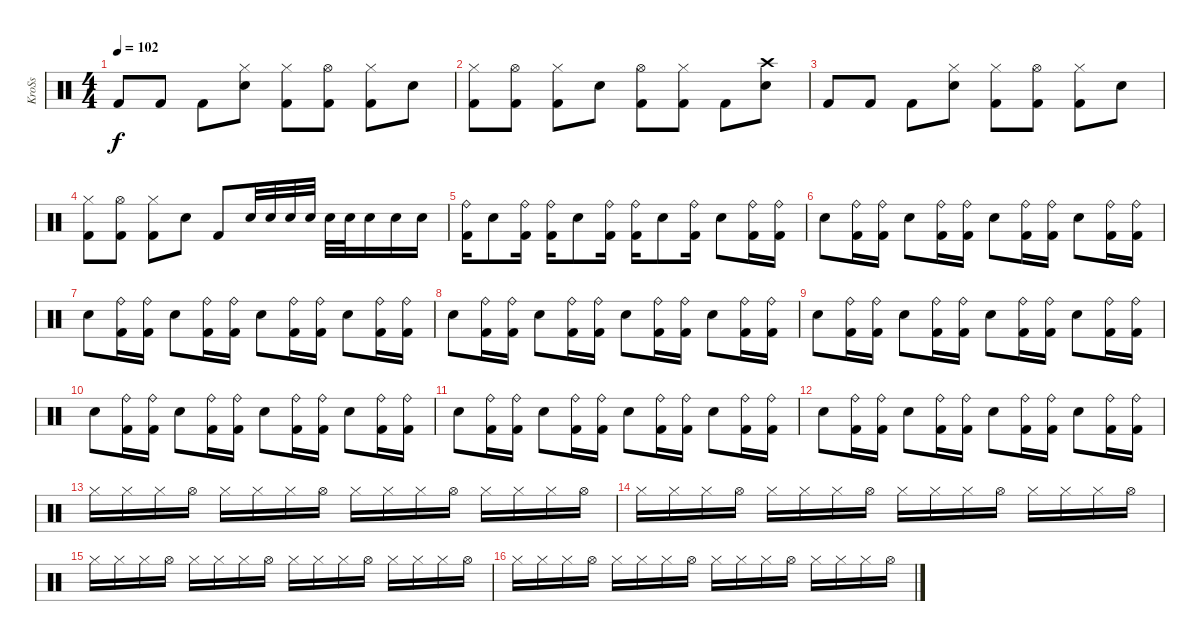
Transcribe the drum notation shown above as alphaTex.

\track ("KroSs" "KroSs") {instrument percussion}
\staff {score}
\articulation defaults
\ts (4 4)
\tempo 102
\clef neutral
\ks c "Kick (hit) 2".8{dy f} "Kick (hit) 2".8 "Kick (hit) 2".8
("Hi-Hat (closed)" "Snare (hit) 2").8 ("Hi-Hat (closed)" "Kick (hit) 2").8 ("Hi-Hat (open)" "Kick (hit) 2").8 ("Hi-Hat (closed)" "Kick (hit) 2").8 "Snare (hit) 2".8 |
("Hi-Hat (closed)" "Kick (hit) 2").8 ("Hi-Hat (open)" "Kick (hit) 2").8 ("Hi-Hat (closed)" "Kick (hit) 2").8 "Snare (hit) 2".8 ("Hi-Hat (open)" "Kick (hit) 2").8 ("Hi-Hat (closed)" "Kick (hit) 2").8 "Kick (hit) 2".8 ("Crash high (hit)" "Snare (hit) 2").8 |
"Kick (hit) 2".8 "Kick (hit) 2".8 "Kick (hit) 2".8 ("Hi-Hat (closed)" "Snare (hit) 2").8 ("Hi-Hat (closed)" "Kick (hit) 2").8 ("Hi-Hat (open)" "Kick (hit) 2").8 ("Hi-Hat (closed)" "Kick (hit) 2").8 "Snare (hit) 2".8 |
("Hi-Hat (closed)" "Kick (hit) 2").8 ("Hi-Hat (open)" "Kick (hit) 2").8 ("Hi-Hat (closed)" "Kick (hit) 2").8 "Snare (hit) 2".8 "Kick (hit) 2".8 "Snare (hit) 2".32 "Snare (hit) 2".32 "Snare (hit) 2".32 "Snare (hit) 2".32 "Snare (hit) 2".32 "Snare (hit) 2".32 "Snare (hit) 2".16 "Snare (hit) 2".16 "Snare (hit) 2".16 |
("Ride (bell)" "Kick (hit) 2").16 "Snare (hit) 2".8 ("Ride (bell)" "Kick (hit) 2").16 ("Ride (bell)" "Kick (hit) 2").16 "Snare (hit) 2".8 ("Ride (bell)" "Kick (hit) 2").16 ("Ride (bell)" "Kick (hit) 2").16 "Snare (hit) 2".8 ("Ride (bell)" "Kick (hit) 2").16 "Snare (hit) 2".8 ("Ride (bell)" "Kick (hit) 2").16 ("Ride (bell)" "Kick (hit) 2").16 |
"Snare (hit) 2".8 ("Ride (bell)" "Kick (hit) 2").16 ("Ride (bell)" "Kick (hit) 2").16 "Snare (hit) 2".8 ("Ride (bell)" "Kick (hit) 2").16 ("Ride (bell)" "Kick (hit) 2").16 "Snare (hit) 2".8 ("Ride (bell)" "Kick (hit) 2").16 ("Ride (bell)" "Kick (hit) 2").16 "Snare (hit) 2".8 ("Ride (bell)" "Kick (hit) 2").16 ("Ride (bell)" "Kick (hit) 2").16 |
"Snare (hit) 2".8 ("Ride (bell)" "Kick (hit) 2").16 ("Ride (bell)" "Kick (hit) 2").16 "Snare (hit) 2".8 ("Ride (bell)" "Kick (hit) 2").16 ("Ride (bell)" "Kick (hit) 2").16 "Snare (hit) 2".8 ("Ride (bell)" "Kick (hit) 2").16 ("Ride (bell)" "Kick (hit) 2").16 "Snare (hit) 2".8 ("Ride (bell)" "Kick (hit) 2").16 ("Ride (bell)" "Kick (hit) 2").16 |
"Snare (hit) 2".8 ("Ride (bell)" "Kick (hit) 2").16 ("Ride (bell)" "Kick (hit) 2").16 "Snare (hit) 2".8 ("Ride (bell)" "Kick (hit) 2").16 ("Ride (bell)" "Kick (hit) 2").16 "Snare (hit) 2".8 ("Ride (bell)" "Kick (hit) 2").16 ("Ride (bell)" "Kick (hit) 2").16 "Snare (hit) 2".8 ("Ride (bell)" "Kick (hit) 2").16 ("Ride (bell)" "Kick (hit) 2").16 |
"Snare (hit) 2".8 ("Ride (bell)" "Kick (hit) 2").16 ("Ride (bell)" "Kick (hit) 2").16 "Snare (hit) 2".8 ("Ride (bell)" "Kick (hit) 2").16 ("Ride (bell)" "Kick (hit) 2").16 "Snare (hit) 2".8 ("Ride (bell)" "Kick (hit) 2").16 ("Ride (bell)" "Kick (hit) 2").16 "Snare (hit) 2".8 ("Ride (bell)" "Kick (hit) 2").16 ("Ride (bell)" "Kick (hit) 2").16 |
"Snare (hit) 2".8 ("Ride (bell)" "Kick (hit) 2").16 ("Ride (bell)" "Kick (hit) 2").16 "Snare (hit) 2".8 ("Ride (bell)" "Kick (hit) 2").16 ("Ride (bell)" "Kick (hit) 2").16 "Snare (hit) 2".8 ("Ride (bell)" "Kick (hit) 2").16 ("Ride (bell)" "Kick (hit) 2").16 "Snare (hit) 2".8 ("Ride (bell)" "Kick (hit) 2").16 ("Ride (bell)" "Kick (hit) 2").16 |
"Snare (hit) 2".8 ("Ride (bell)" "Kick (hit) 2").16 ("Ride (bell)" "Kick (hit) 2").16 "Snare (hit) 2".8 ("Ride (bell)" "Kick (hit) 2").16 ("Ride (bell)" "Kick (hit) 2").16 "Snare (hit) 2".8 ("Ride (bell)" "Kick (hit) 2").16 ("Ride (bell)" "Kick (hit) 2").16 "Snare (hit) 2".8 ("Ride (bell)" "Kick (hit) 2").16 ("Ride (bell)" "Kick (hit) 2").16 |
"Snare (hit) 2".8 ("Ride (bell)" "Kick (hit) 2").16 ("Ride (bell)" "Kick (hit) 2").16 "Snare (hit) 2".8 ("Ride (bell)" "Kick (hit) 2").16 ("Ride (bell)" "Kick (hit) 2").16 "Snare (hit) 2".8 ("Ride (bell)" "Kick (hit) 2").16 ("Ride (bell)" "Kick (hit) 2").16 "Snare (hit) 2".8 ("Ride (bell)" "Kick (hit) 2").16 ("Ride (bell)" "Kick (hit) 2").16 |
"Hi-Hat (closed)".16 "Hi-Hat (closed)".16 "Hi-Hat (closed)".16 "Hi-Hat (open)".16 "Hi-Hat (closed)".16 "Hi-Hat (closed)".16 "Hi-Hat (closed)".16 "Hi-Hat (open)".16 "Hi-Hat (closed)".16 "Hi-Hat (closed)".16 "Hi-Hat (closed)".16 "Hi-Hat (open)".16 "Hi-Hat (closed)".16 "Hi-Hat (closed)".16 "Hi-Hat (closed)".16 "Hi-Hat (open)".16 |
"Hi-Hat (closed)".16 "Hi-Hat (closed)".16 "Hi-Hat (closed)".16 "Hi-Hat (open)".16 "Hi-Hat (closed)".16 "Hi-Hat (closed)".16 "Hi-Hat (closed)".16 "Hi-Hat (open)".16 "Hi-Hat (closed)".16 "Hi-Hat (closed)".16 "Hi-Hat (closed)".16 "Hi-Hat (open)".16 "Hi-Hat (closed)".16 "Hi-Hat (closed)".16 "Hi-Hat (closed)".16 "Hi-Hat (open)".16 |
"Hi-Hat (closed)".16 "Hi-Hat (closed)".16 "Hi-Hat (closed)".16 "Hi-Hat (open)".16 "Hi-Hat (closed)".16 "Hi-Hat (closed)".16 "Hi-Hat (closed)".16 "Hi-Hat (open)".16 "Hi-Hat (closed)".16 "Hi-Hat (closed)".16 "Hi-Hat (closed)".16 "Hi-Hat (open)".16 "Hi-Hat (closed)".16 "Hi-Hat (closed)".16 "Hi-Hat (closed)".16 "Hi-Hat (open)".16 |
"Hi-Hat (closed)".16 "Hi-Hat (closed)".16 "Hi-Hat (closed)".16 "Hi-Hat (open)".16 "Hi-Hat (closed)".16 "Hi-Hat (closed)".16 "Hi-Hat (closed)".16 "Hi-Hat (open)".16 "Hi-Hat (closed)".16 "Hi-Hat (closed)".16 "Hi-Hat (closed)".16 "Hi-Hat (open)".16 "Hi-Hat (closed)".16 "Hi-Hat (closed)".16 "Hi-Hat (closed)".16 "Hi-Hat (open)".16
